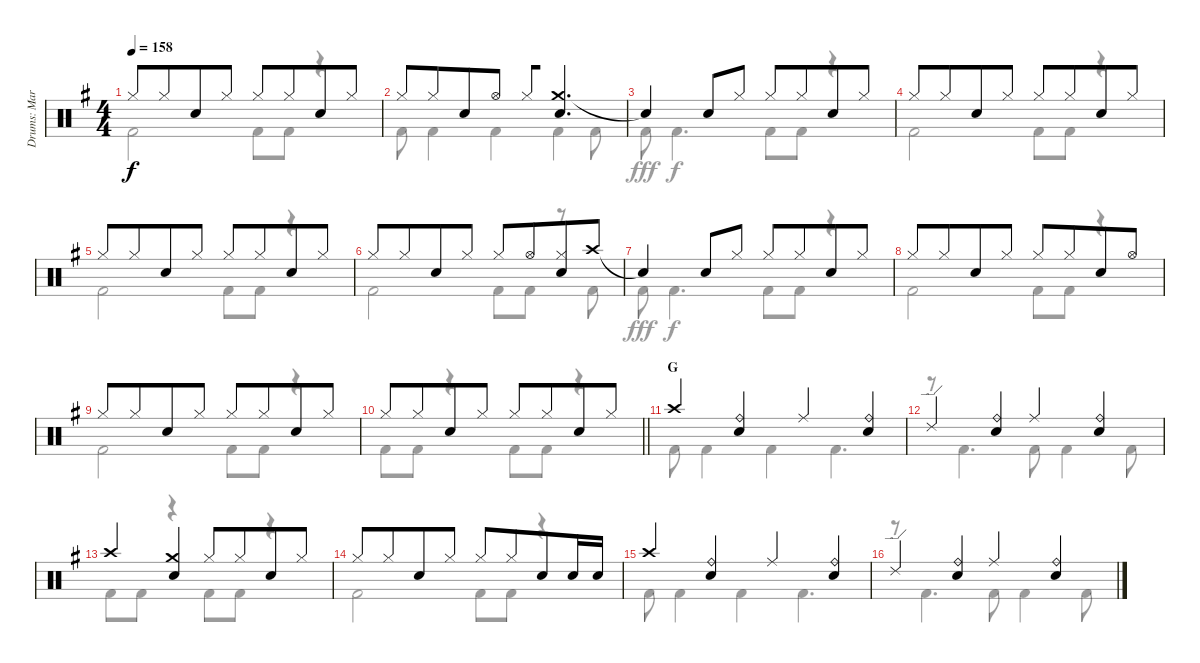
\track ("Drums: Mark" "Drums: Mar") {instrument percussion}
\staff {score}
\articulation defaults
\voice
\ts (4 4)
\tempo 158
\clef neutral
\ks g "Hi-Hat (closed)".8{dy f} "Hi-Hat (closed)".8{beam merge} "Snare (hit) 2".8 "Hi-Hat (closed)".8 "Hi-Hat (closed)".8 "Hi-Hat (closed)".8{beam merge} "Snare (hit) 2".8 "Hi-Hat (closed)".8
|
"Hi-Hat (closed)".8 "Hi-Hat (closed)".8{beam merge} "Snare (hit) 2".8 "Hi-Hat (open)".8 "Hi-Hat (closed)".8{beam merge} ("Crash medium (hit)" "Snare (hit) 2").4{d} |
"Snare (hit)"{t}.4 "Snare (hit) 2".8 "Hi-Hat (closed)".8 "Hi-Hat (closed)".8 "Hi-Hat (closed)".8{beam merge} "Snare (hit) 2".8 "Hi-Hat (closed)".8 |
"Hi-Hat (closed)".8 "Hi-Hat (closed)".8{beam merge} "Snare (hit) 2".8 "Hi-Hat (closed)".8 "Hi-Hat (closed)".8 "Hi-Hat (closed)".8{beam merge} "Snare (hit) 2".8 "Hi-Hat (closed)".8 |
"Hi-Hat (closed)".8 "Hi-Hat (closed)".8{beam merge} "Snare (hit) 2".8 "Hi-Hat (closed)".8 "Hi-Hat (closed)".8 "Hi-Hat (closed)".8{beam merge} "Snare (hit) 2".8 "Hi-Hat (closed)".8 |
"Hi-Hat (closed)".8 "Hi-Hat (closed)".8{beam merge} "Snare (hit) 2".8 "Hi-Hat (closed)".8 "Hi-Hat (closed)".8 "Hi-Hat (open)".8{beam merge} ("Hi-Hat (closed)" "Snare (hit) 2").8 "Crash high (hit)".8 |
"Snare (hit)"{t}.4 "Snare (hit) 2".8 "Hi-Hat (closed)".8 "Hi-Hat (closed)".8 "Hi-Hat (closed)".8{beam merge} "Snare (hit) 2".8 "Hi-Hat (closed)".8 |
"Hi-Hat (closed)".8 "Hi-Hat (closed)".8{beam merge} "Snare (hit) 2".8 "Hi-Hat (closed)".8 "Hi-Hat (closed)".8 "Hi-Hat (closed)".8{beam merge} "Snare (hit) 2".8 "Hi-Hat (open)".8 |
"Hi-Hat (closed)".8 "Hi-Hat (closed)".8{beam merge} "Snare (hit) 2".8 "Hi-Hat (closed)".8 "Hi-Hat (closed)".8 "Hi-Hat (closed)".8{beam merge} "Snare (hit) 2".8 "Hi-Hat (closed)".8 |
\barLineRight lightlight "Hi-Hat (closed)".8 "Hi-Hat (closed)".8{beam merge} "Snare (hit) 2".8 "Hi-Hat (closed)".8 "Hi-Hat (closed)".8 "Hi-Hat (closed)".8{beam merge} "Snare (hit) 2".8 "Hi-Hat (closed)".8
|
\section ("" "G")
"Crash high (hit)".4 ("Ride (bell)" "Snare (hit) 2").4 "Ride (middle)".4 ("Ride (bell)" "Snare (hit) 2").4 |
"Ride (edge) 2".4 ("Ride (bell)" "Snare (hit) 2").4 "Ride (middle)".4 ("Ride (bell)" "Snare (hit) 2").4 |
"Crash high (hit)".4 ("Crash medium (hit)" "Snare (hit) 2").4 "Hi-Hat (closed)".8 "Hi-Hat (closed)".8{beam merge} "Snare (hit) 2".8 "Hi-Hat (closed)".8 |
"Hi-Hat (closed)".8 "Hi-Hat (closed)".8{beam merge} "Snare (hit) 2".8 "Hi-Hat (closed)".8 "Hi-Hat (closed)".8 "Hi-Hat (closed)".8{beam merge} "Snare (hit) 2".8 "Electric Snare (hit)".16 "Electric Snare (hit)".16 |
"Crash high (hit)".4 ("Ride (bell)" "Snare (hit) 2").4 "Ride (middle)".4 ("Ride (bell)" "Snare (hit) 2").4 |
"Ride (edge) 2".4 ("Ride (bell)" "Snare (hit) 2").4 "Ride (middle)".4 ("Ride (bell)" "Snare (hit) 2").4
\voice
\clef neutral
\ottava regular
\simile none
\ks g "Kick (hit) 2".2{dy f} "Kick (hit) 2".8 "Kick (hit) 2".8
r.4 |
"Kick (hit) 2".8 "Kick (hit) 2".4 "Kick (hit) 2".4 "Kick (hit) 2".4 "Kick (hit) 2".8 |
"Kick (hit) 2".8{dy fff} "Kick (hit) 2".4{d dy f} "Kick (hit) 2".8 "Kick (hit) 2".8 r.4 |
"Kick (hit) 2".2 "Kick (hit) 2".8 "Kick (hit) 2".8 r.4 |
"Kick (hit) 2".2 "Kick (hit) 2".8 "Kick (hit) 2".8 r.4 |
"Kick (hit) 2".2 "Kick (hit) 2".8 "Kick (hit) 2".8 r.8 "Kick (hit) 2".8 |
"Kick (hit) 2".8{dy fff} "Kick (hit) 2".4{d dy f} "Kick (hit) 2".8 "Kick (hit) 2".8 r.4 |
"Kick (hit) 2".2 "Kick (hit) 2".8 "Kick (hit) 2".8 r.4 |
"Kick (hit) 2".2 "Kick (hit) 2".8 "Kick (hit) 2".8 r.4 |
\barLineRight lightlight "Kick (hit) 2".8 "Kick (hit) 2".8
r.4 "Kick (hit) 2".8 "Kick (hit) 2".8 r.4 |
"Kick (hit) 2".8 "Kick (hit) 2".4 "Kick (hit) 2".4 "Kick (hit) 2".4{d} |
r.8 "Kick (hit) 2".4{d} "Kick (hit) 2".8 "Kick (hit) 2".4 "Kick (hit) 2".8 |
"Kick (hit) 2".8 "Kick (hit) 2".8 r.4 "Kick (hit) 2".8 "Kick (hit) 2".8 r.4 |
"Kick (hit) 2".2 "Kick (hit) 2".8 "Kick (hit) 2".8 r.4 |
"Kick (hit) 2".8 "Kick (hit) 2".4 "Kick (hit) 2".4 "Kick (hit) 2".4{d} |
r.8 "Kick (hit) 2".4{d} "Kick (hit) 2".8 "Kick (hit) 2".4 "Kick (hit) 2".8
